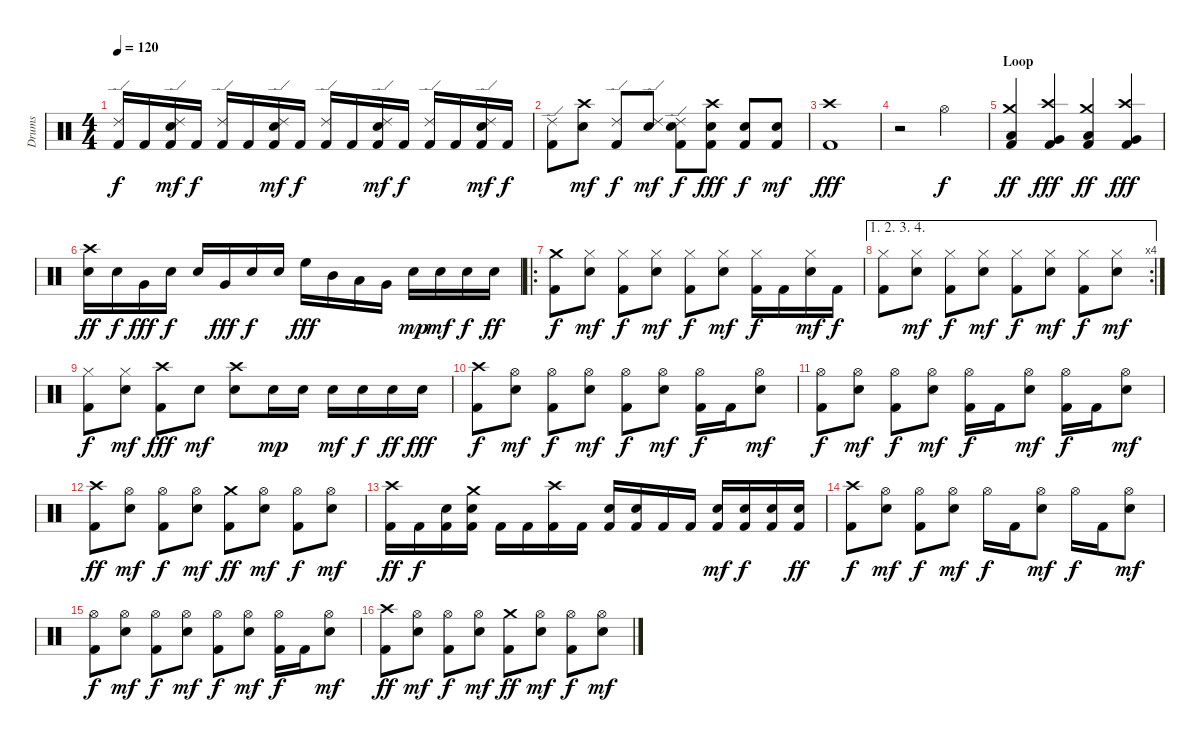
\track ("Drums" "Drums") {instrument percussion}
\staff {score}
\articulation defaults
\ts (4 4)
\tempo 120
\clef neutral
\ks c
("Ride (edge) 2" "Kick (hit) 2").16{dy f} "Kick (hit) 2".16 ("Ride (edge) 2" "Snare (hit) 2" "Kick (hit) 2").16{dy mf} "Kick (hit) 2".16{dy f} ("Ride (edge) 2" "Kick (hit) 2").16 "Kick (hit) 2".16 ("Ride (edge) 2" "Snare (hit) 2" "Kick (hit) 2").16{dy mf} "Kick (hit) 2".16{dy f} ("Ride (edge) 2" "Kick (hit) 2").16 "Kick (hit) 2".16 ("Ride (edge) 2" "Snare (hit) 2" "Kick (hit) 2").16{dy mf} "Kick (hit) 2".16{dy f} ("Ride (edge) 2" "Kick (hit) 2").16 "Kick (hit) 2".16 ("Ride (edge) 2" "Snare (hit) 2" "Kick (hit) 2").16{dy mf} "Kick (hit) 2".16{dy f} |
("Ride (edge) 2" "Kick (hit) 2").8 ("Crash high (hit)" "Snare (hit) 2").8{dy mf} ("Ride (edge) 2" "Kick (hit) 2").8{dy f} ("Ride (edge) 2" "Snare (hit) 2").8{dy mf} ("Ride (edge) 2" "Snare (hit) 2" "Kick (hit) 2").8{dy f} ("Crash high (hit)" "Snare (hit) 2" "Kick (hit) 2").8{dy fff} ("Snare (hit) 2" "Kick (hit) 2").8{dy f} ("Snare (hit) 2" "Kick (hit) 2").8{dy mf} |
("Crash high (hit)" "Kick (hit) 2").1{dy fff} |
r.2 "Hi-Hat (open)".2{dy f} |
\section ("" "Loop")
("Crash medium (hit)" "Low Floor Tom (hit)" "Kick (hit) 2").4{dy ff balance 4} ("Crash high (hit)" "Very Low Tom (hit)" "Kick (hit) 2").4{dy fff balance 12} ("Crash medium (hit)" "Low Floor Tom (hit)" "Kick (hit) 2").4{dy ff balance 4} ("Crash high (hit)" "Very Low Tom (hit)" "Kick (hit) 2").4{dy fff balance 12} |
("Crash high (hit)" "Snare (hit) 2").16{dy ff balance 8} "Snare (hit) 2".16{dy f} "Very Low Tom (hit)".16{dy fff} "Snare (hit) 2".16{dy f} "Snare (hit) 2".16 "Very Low Tom (hit)".16{dy fff} "Snare (hit) 2".16{dy f} "Snare (hit) 2".16 "High Floor Tom (hit)".16{dy fff} "Mid Tom (hit)".16 "Low Tom (hit)".16 "Very Low Tom (hit)".16 "Snare (hit) 2".16{dy mp} "Snare (hit) 2".16{dy mf} "Snare (hit) 2".16{dy f} "Snare (hit) 2".16{dy ff} |
\ro
("Crash medium (hit)" "Kick (hit) 2").8{dy f} ("Hi-Hat (closed)" "Snare (hit) 2").8{dy mf} ("Hi-Hat (closed)" "Kick (hit) 2").8{dy f} ("Hi-Hat (closed)" "Snare (hit) 2").8{dy mf} ("Hi-Hat (closed)" "Kick (hit) 2").8{dy f} ("Hi-Hat (closed)" "Snare (hit) 2").8{dy mf} ("Hi-Hat (closed)" "Kick (hit) 2").16{dy f} "Kick (hit) 2".16 ("Hi-Hat (closed)" "Snare (hit) 2").16{dy mf} "Kick (hit) 2".16{dy f} |
\ae (1 2 3 4)
\rc 4
("Hi-Hat (closed)" "Kick (hit) 2").8 ("Hi-Hat (closed)" "Snare (hit) 2").8{dy mf} ("Hi-Hat (closed)" "Kick (hit) 2").8{dy f} ("Hi-Hat (closed)" "Snare (hit) 2").8{dy mf} ("Hi-Hat (closed)" "Kick (hit) 2").8{dy f} ("Hi-Hat (closed)" "Snare (hit) 2").8{dy mf} ("Hi-Hat (closed)" "Kick (hit) 2").8{dy f} ("Hi-Hat (closed)" "Snare (hit) 2").8{dy mf} |
("Hi-Hat (closed)" "Kick (hit) 2").8{dy f} ("Hi-Hat (closed)" "Snare (hit) 2").8{dy mf} ("Crash high (hit)" "Kick (hit) 2").8{dy fff} "Snare (hit) 2".8{dy mf} ("Crash high (hit)" "Snare (hit) 2").8 "Snare (hit) 2".16{dy mp} "Snare (hit) 2".16 "Snare (hit) 2".16{dy mf} "Snare (hit) 2".16{dy f} "Snare (hit) 2".16{dy ff} "Snare (hit) 2".16{dy fff} |
("Crash high (hit)" "Kick (hit) 2").8{dy f} ("Hi-Hat (open)" "Snare (hit) 2").8{dy mf} ("Hi-Hat (open)" "Kick (hit) 2").8{dy f} ("Hi-Hat (open)" "Snare (hit) 2").8{dy mf} ("Hi-Hat (open)" "Kick (hit) 2").8{dy f} ("Hi-Hat (open)" "Snare (hit) 2").8{dy mf} ("Hi-Hat (open)" "Kick (hit) 2").16{dy f} "Kick (hit) 2".16 ("Hi-Hat (open)" "Snare (hit) 2").8{dy mf} |
("Hi-Hat (open)" "Kick (hit) 2").8{dy f} ("Hi-Hat (open)" "Snare (hit) 2").8{dy mf} ("Hi-Hat (open)" "Kick (hit) 2").8{dy f} ("Hi-Hat (open)" "Snare (hit) 2").8{dy mf} ("Hi-Hat (open)" "Kick (hit) 2").16{dy f} "Kick (hit) 2".16 ("Hi-Hat (open)" "Snare (hit) 2").8{dy mf} ("Hi-Hat (open)" "Kick (hit) 2").16{dy f} "Kick (hit) 2".16 ("Hi-Hat (open)" "Snare (hit) 2").8{dy mf} |
("Crash high (hit)" "Kick (hit) 2").8{dy ff} ("Hi-Hat (open)" "Snare (hit) 2").8{dy mf} ("Hi-Hat (open)" "Kick (hit) 2").8{dy f} ("Hi-Hat (open)" "Snare (hit) 2").8{dy mf} ("Crash medium (hit)" "Kick (hit) 2").8{dy ff} ("Hi-Hat (open)" "Snare (hit) 2").8{dy mf} ("Hi-Hat (open)" "Kick (hit) 2").8{dy f} ("Hi-Hat (open)" "Snare (hit) 2").8{dy mf} |
("Crash high (hit)" "Kick (hit) 2").16{dy ff} "Kick (hit) 2".16{dy f} ("Snare (hit) 2" "Kick (hit) 2").16 ("Crash medium (hit)" "Snare (hit) 2" "Kick (hit) 2").16 "Kick (hit) 2".16 "Kick (hit) 2".16 ("Crash high (hit)" "Kick (hit) 2").16 "Kick (hit) 2".16 ("Snare (hit) 2" "Kick (hit) 2").16 ("Snare (hit) 2" "Kick (hit) 2").16 "Kick (hit) 2".16 "Kick (hit) 2".16 ("Snare (hit) 2" "Kick (hit) 2").16{dy mf} ("Snare (hit) 2" "Kick (hit) 2").16{dy f} ("Snare (hit) 2" "Kick (hit) 2").16 ("Snare (hit) 2" "Kick (hit) 2").16{dy ff} |
("Crash high (hit)" "Kick (hit) 2").8{dy f} ("Hi-Hat (open)" "Snare (hit) 2").8{dy mf} ("Hi-Hat (open)" "Kick (hit) 2").8{dy f} ("Hi-Hat (open)" "Snare (hit) 2").8{dy mf} "Hi-Hat (open)".16{dy f} "Kick (hit) 2".16 ("Hi-Hat (open)" "Snare (hit) 2").8{dy mf} "Hi-Hat (open)".16{dy f} "Kick (hit) 2".16 ("Hi-Hat (open)" "Snare (hit) 2").8{dy mf} |
("Hi-Hat (open)" "Kick (hit) 2").8{dy f} ("Hi-Hat (open)" "Snare (hit) 2").8{dy mf} ("Hi-Hat (open)" "Kick (hit) 2").8{dy f} ("Hi-Hat (open)" "Snare (hit) 2").8{dy mf} ("Hi-Hat (open)" "Kick (hit) 2").8{dy f} ("Hi-Hat (open)" "Snare (hit) 2").8{dy mf} ("Hi-Hat (open)" "Kick (hit) 2").16{dy f} "Kick (hit) 2".16 ("Hi-Hat (open)" "Snare (hit) 2").8{dy mf} |
("Crash high (hit)" "Kick (hit) 2").8{dy ff} ("Hi-Hat (open)" "Snare (hit) 2").8{dy mf} ("Hi-Hat (open)" "Kick (hit) 2").8{dy f} ("Hi-Hat (open)" "Snare (hit) 2").8{dy mf} ("Crash medium (hit)" "Kick (hit) 2").8{dy ff} ("Hi-Hat (open)" "Snare (hit) 2").8{dy mf} ("Hi-Hat (open)" "Kick (hit) 2").8{dy f} ("Hi-Hat (open)" "Snare (hit) 2").8{dy mf}
